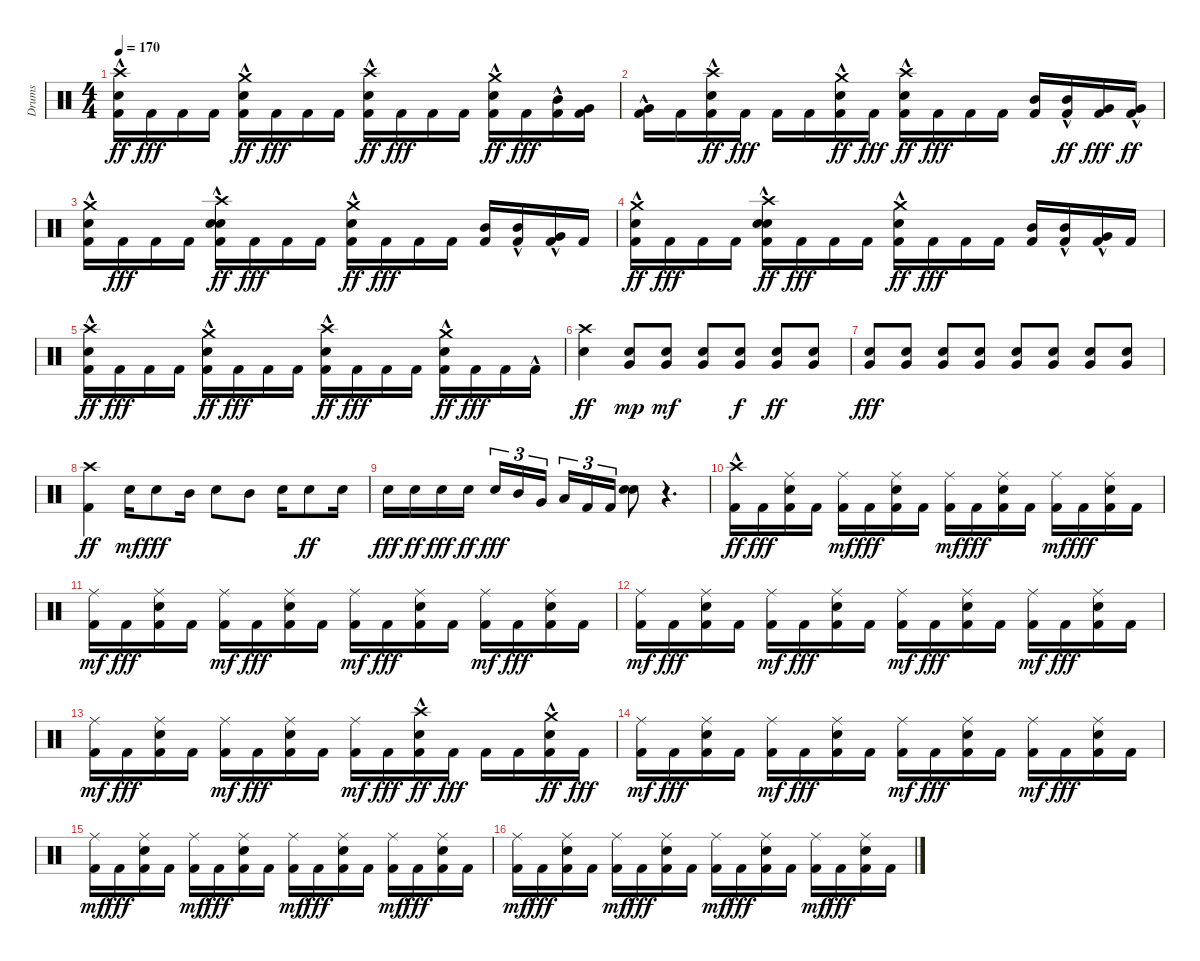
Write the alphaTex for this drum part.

\track ("Drums" "Drums") {instrument percussion}
\staff {score}
\articulation defaults
\ts (4 4)
\tempo 170
\clef neutral
\ks c
("Kick (hit) 2" "Snare (hit) 2"{hac} "Crash high (hit)"{hac}).16{dy ff} "Kick (hit) 2".16{dy fff} "Kick (hit) 2".16 "Kick (hit) 2".16 ("Kick (hit) 2" "Snare (hit) 2"{hac} "Crash medium (hit)"{hac}).16{dy ff} "Kick (hit) 2".16{dy fff} "Kick (hit) 2".16 "Kick (hit) 2".16 ("Kick (hit) 2" "Snare (hit) 2"{hac} "Crash high (hit)"{hac}).16{dy ff} "Kick (hit) 2".16{dy fff} "Kick (hit) 2".16 "Kick (hit) 2".16 ("Kick (hit) 2" "Snare (hit) 2"{hac} "Crash medium (hit)"{hac}).16{dy ff} "Kick (hit) 2".16{dy fff} ("Kick (hit) 2" "Mid Tom (hit)"{hac}).16 ("Kick (hit) 2" "Very Low Tom (hit)").16 |
("Kick (hit) 2" "Very Low Tom (hit)"{hac}).16 "Kick (hit) 2".16 ("Kick (hit) 2" "Snare (hit) 2"{hac} "Crash high (hit)"{hac}).16{dy ff} "Kick (hit) 2".16{dy fff} "Kick (hit) 2".16 "Kick (hit) 2".16 ("Kick (hit) 2" "Snare (hit) 2"{hac} "Crash medium (hit)"{hac}).16{dy ff} "Kick (hit) 2".16{dy fff} ("Kick (hit) 2" "Snare (hit) 2"{hac} "Crash high (hit)"{hac}).16{dy ff} "Kick (hit) 2".16{dy fff} "Kick (hit) 2".16 "Kick (hit) 2".16 ("Kick (hit) 2" "Mid Tom (hit)").16 ("Kick (hit) 2" "Mid Tom (hit)"{hac}).16{dy ff} ("Kick (hit) 2" "Very Low Tom (hit)").16{dy fff} ("Kick (hit) 2" "Very Low Tom (hit)"{hac}).16{dy ff} |
("Kick (hit) 2" "Snare (hit) 2"{hac} "Crash medium (hit)"{hac}).16 "Kick (hit) 2".16{dy fff} "Kick (hit) 2".16 "Kick (hit) 2".16 ("Kick (hit) 2" "Snare (hit)"{hac} "Snare (hit) 2"{hac} "Crash high (hit)"{hac}).16{dy ff} "Kick (hit) 2".16{dy fff} "Kick (hit) 2".16 "Kick (hit) 2".16 ("Kick (hit) 2" "Snare (hit) 2"{hac} "Crash medium (hit)"{hac}).16{dy ff} "Kick (hit) 2".16{dy fff} "Kick (hit) 2".16 "Kick (hit) 2".16 ("Kick (hit) 2" "Mid Tom (hit)").16 ("Kick (hit) 2" "Mid Tom (hit)"{hac}).16 ("Kick (hit) 2" "Very Low Tom (hit)"{hac}).16 "Kick (hit) 2".16 |
("Kick (hit) 2" "Snare (hit) 2"{hac} "Crash medium (hit)"{hac}).16{dy ff} "Kick (hit) 2".16{dy fff} "Kick (hit) 2".16 "Kick (hit) 2".16 ("Kick (hit) 2" "Snare (hit)"{hac} "Snare (hit) 2"{hac} "Crash high (hit)"{hac}).16{dy ff} "Kick (hit) 2".16{dy fff} "Kick (hit) 2".16 "Kick (hit) 2".16 ("Kick (hit) 2" "Snare (hit) 2"{hac} "Crash medium (hit)"{hac}).16{dy ff} "Kick (hit) 2".16{dy fff} "Kick (hit) 2".16 "Kick (hit) 2".16 ("Kick (hit) 2" "Mid Tom (hit)").16 ("Kick (hit) 2" "Mid Tom (hit)"{hac}).16 ("Kick (hit) 2" "Very Low Tom (hit)"{hac}).16 "Kick (hit) 2".16 |
("Kick (hit) 2" "Snare (hit) 2"{hac} "Crash high (hit)"{hac}).16{dy ff} "Kick (hit) 2".16{dy fff} "Kick (hit) 2".16 "Kick (hit) 2".16 ("Kick (hit) 2" "Snare (hit) 2"{hac} "Crash medium (hit)"{hac}).16{dy ff} "Kick (hit) 2".16{dy fff} "Kick (hit) 2".16 "Kick (hit) 2".16 ("Kick (hit) 2" "Snare (hit) 2"{hac} "Crash high (hit)"{hac}).16{dy ff} "Kick (hit) 2".16{dy fff} "Kick (hit) 2".16 "Kick (hit) 2".16 ("Kick (hit) 2" "Snare (hit) 2"{hac} "Crash medium (hit)"{hac}).16{dy ff} "Kick (hit) 2".16{dy fff} "Kick (hit) 2".16 "Kick (hit) 2"{hac}.16 |
("Snare (hit) 2" "Crash high (hit)").4{dy ff} ("Snare (hit) 2" "Very Low Tom (hit)").8{dy mp} ("Snare (hit) 2" "Very Low Tom (hit)").8{dy mf} ("Snare (hit) 2" "Very Low Tom (hit)").8 ("Snare (hit) 2" "Very Low Tom (hit)").8{dy f} ("Snare (hit) 2" "Very Low Tom (hit)").8{dy ff} ("Snare (hit) 2" "Very Low Tom (hit)").8 |
("Snare (hit) 2" "Very Low Tom (hit)").8{dy fff} ("Snare (hit) 2" "Very Low Tom (hit)").8 ("Snare (hit) 2" "Very Low Tom (hit)").8 ("Snare (hit) 2" "Very Low Tom (hit)").8 ("Snare (hit) 2" "Very Low Tom (hit)").8 ("Snare (hit) 2" "Very Low Tom (hit)").8 ("Snare (hit) 2" "Very Low Tom (hit)").8 ("Snare (hit) 2" "Very Low Tom (hit)").8 |
("Kick (hit) 2" "Crash high (hit)").4{dy ff} "Snare (hit) 2".16{dy mf} "Snare (hit) 2".8{dy fff} "Mid Tom (hit)".16 "Snare (hit) 2".8 "Mid Tom (hit)".8 "Snare (hit) 2".16 "Snare (hit) 2".8{dy ff} "Snare (hit) 2".16 |
"Snare (hit) 2".16{dy fff} "Snare (hit) 2".16{dy ff} "Snare (hit) 2".16{dy fff} "Snare (hit) 2".16{dy ff} "Snare (hit) 2".16{tu (3 2) dy fff} "Mid Tom (hit)".16{tu (3 2)} "Very Low Tom (hit)".16{tu (3 2)} "Low Floor Tom (hit)".16{tu (3 2)} "Kick (hit) 2".16{tu (3 2)} "Kick (hit) 2".16{tu (3 2)} ("Snare (hit) 2" "Snare (hit) 2").8 r.4{d} |
("Kick (hit) 2" "Crash high (hit)"{hac}).16{dy ff} "Kick (hit) 2".16{dy fff} ("Kick (hit) 2" "Snare (hit) 2" "Ride (middle)").16 "Kick (hit) 2".16 ("Kick (hit) 2" "Ride (middle)").16{dy mf} "Kick (hit) 2".16{dy fff} ("Kick (hit) 2" "Snare (hit) 2" "Ride (middle)").16 "Kick (hit) 2".16 ("Kick (hit) 2" "Ride (middle)").16{dy mf} "Kick (hit) 2".16{dy fff} ("Kick (hit) 2" "Snare (hit) 2" "Ride (middle)").16 "Kick (hit) 2".16 ("Kick (hit) 2" "Ride (middle)").16{dy mf} "Kick (hit) 2".16{dy fff} ("Kick (hit) 2" "Snare (hit) 2" "Ride (middle)").16 "Kick (hit) 2".16 |
("Kick (hit) 2" "Ride (middle)").16{dy mf} "Kick (hit) 2".16{dy fff} ("Kick (hit) 2" "Snare (hit) 2" "Ride (middle)").16 "Kick (hit) 2".16 ("Kick (hit) 2" "Ride (middle)").16{dy mf} "Kick (hit) 2".16{dy fff} ("Kick (hit) 2" "Snare (hit) 2" "Ride (middle)").16 "Kick (hit) 2".16 ("Kick (hit) 2" "Ride (middle)").16{dy mf} "Kick (hit) 2".16{dy fff} ("Kick (hit) 2" "Snare (hit) 2" "Ride (middle)").16 "Kick (hit) 2".16 ("Kick (hit) 2" "Ride (middle)").16{dy mf} "Kick (hit) 2".16{dy fff} ("Kick (hit) 2" "Snare (hit) 2" "Ride (middle)").16 "Kick (hit) 2".16 |
("Kick (hit) 2" "Ride (middle)").16{dy mf} "Kick (hit) 2".16{dy fff} ("Kick (hit) 2" "Snare (hit) 2" "Ride (middle)").16 "Kick (hit) 2".16 ("Kick (hit) 2" "Ride (middle)").16{dy mf} "Kick (hit) 2".16{dy fff} ("Kick (hit) 2" "Snare (hit) 2" "Ride (middle)").16 "Kick (hit) 2".16 ("Kick (hit) 2" "Ride (middle)").16{dy mf} "Kick (hit) 2".16{dy fff} ("Kick (hit) 2" "Snare (hit) 2" "Ride (middle)").16 "Kick (hit) 2".16 ("Kick (hit) 2" "Ride (middle)").16{dy mf} "Kick (hit) 2".16{dy fff} ("Kick (hit) 2" "Snare (hit) 2" "Ride (middle)").16 "Kick (hit) 2".16 |
("Kick (hit) 2" "Ride (middle)").16{dy mf} "Kick (hit) 2".16{dy fff} ("Kick (hit) 2" "Snare (hit) 2" "Ride (middle)").16 "Kick (hit) 2".16 ("Kick (hit) 2" "Ride (middle)").16{dy mf} "Kick (hit) 2".16{dy fff} ("Kick (hit) 2" "Snare (hit) 2" "Ride (middle)").16 "Kick (hit) 2".16 ("Kick (hit) 2" "Ride (middle)").16{dy mf} "Kick (hit) 2".16{dy fff} ("Kick (hit) 2" "Snare (hit) 2" "Crash high (hit)"{hac}).16{dy ff} "Kick (hit) 2".16{dy fff} "Kick (hit) 2".16 "Kick (hit) 2".16 ("Kick (hit) 2" "Snare (hit) 2" "Crash medium (hit)"{hac}).16{dy ff} "Kick (hit) 2".16{dy fff} |
("Kick (hit) 2" "Ride (middle)").16{dy mf} "Kick (hit) 2".16{dy fff} ("Kick (hit) 2" "Snare (hit) 2" "Ride (middle)").16 "Kick (hit) 2".16 ("Kick (hit) 2" "Ride (middle)").16{dy mf} "Kick (hit) 2".16{dy fff} ("Kick (hit) 2" "Snare (hit) 2" "Ride (middle)").16 "Kick (hit) 2".16 ("Kick (hit) 2" "Ride (middle)").16{dy mf} "Kick (hit) 2".16{dy fff} ("Kick (hit) 2" "Snare (hit) 2" "Ride (middle)").16 "Kick (hit) 2".16 ("Kick (hit) 2" "Ride (middle)").16{dy mf} "Kick (hit) 2".16{dy fff} ("Kick (hit) 2" "Snare (hit) 2" "Ride (middle)").16 "Kick (hit) 2".16 |
("Kick (hit) 2" "Ride (middle)").16{dy mf} "Kick (hit) 2".16{dy fff} ("Kick (hit) 2" "Snare (hit) 2" "Ride (middle)").16 "Kick (hit) 2".16 ("Kick (hit) 2" "Ride (middle)").16{dy mf} "Kick (hit) 2".16{dy fff} ("Kick (hit) 2" "Snare (hit) 2" "Ride (middle)").16 "Kick (hit) 2".16 ("Kick (hit) 2" "Ride (middle)").16{dy mf} "Kick (hit) 2".16{dy fff} ("Kick (hit) 2" "Snare (hit) 2" "Ride (middle)").16 "Kick (hit) 2".16 ("Kick (hit) 2" "Ride (middle)").16{dy mf} "Kick (hit) 2".16{dy fff} ("Kick (hit) 2" "Snare (hit) 2" "Ride (middle)").16 "Kick (hit) 2".16 |
("Kick (hit) 2" "Ride (middle)").16{dy mf} "Kick (hit) 2".16{dy fff} ("Kick (hit) 2" "Snare (hit) 2" "Ride (middle)").16 "Kick (hit) 2".16 ("Kick (hit) 2" "Ride (middle)").16{dy mf} "Kick (hit) 2".16{dy fff} ("Kick (hit) 2" "Snare (hit) 2" "Ride (middle)").16 "Kick (hit) 2".16 ("Kick (hit) 2" "Ride (middle)").16{dy mf} "Kick (hit) 2".16{dy fff} ("Kick (hit) 2" "Snare (hit) 2" "Ride (middle)").16 "Kick (hit) 2".16 ("Kick (hit) 2" "Ride (middle)").16{dy mf} "Kick (hit) 2".16{dy fff} ("Kick (hit) 2" "Snare (hit) 2" "Ride (middle)").16 "Kick (hit) 2".16
